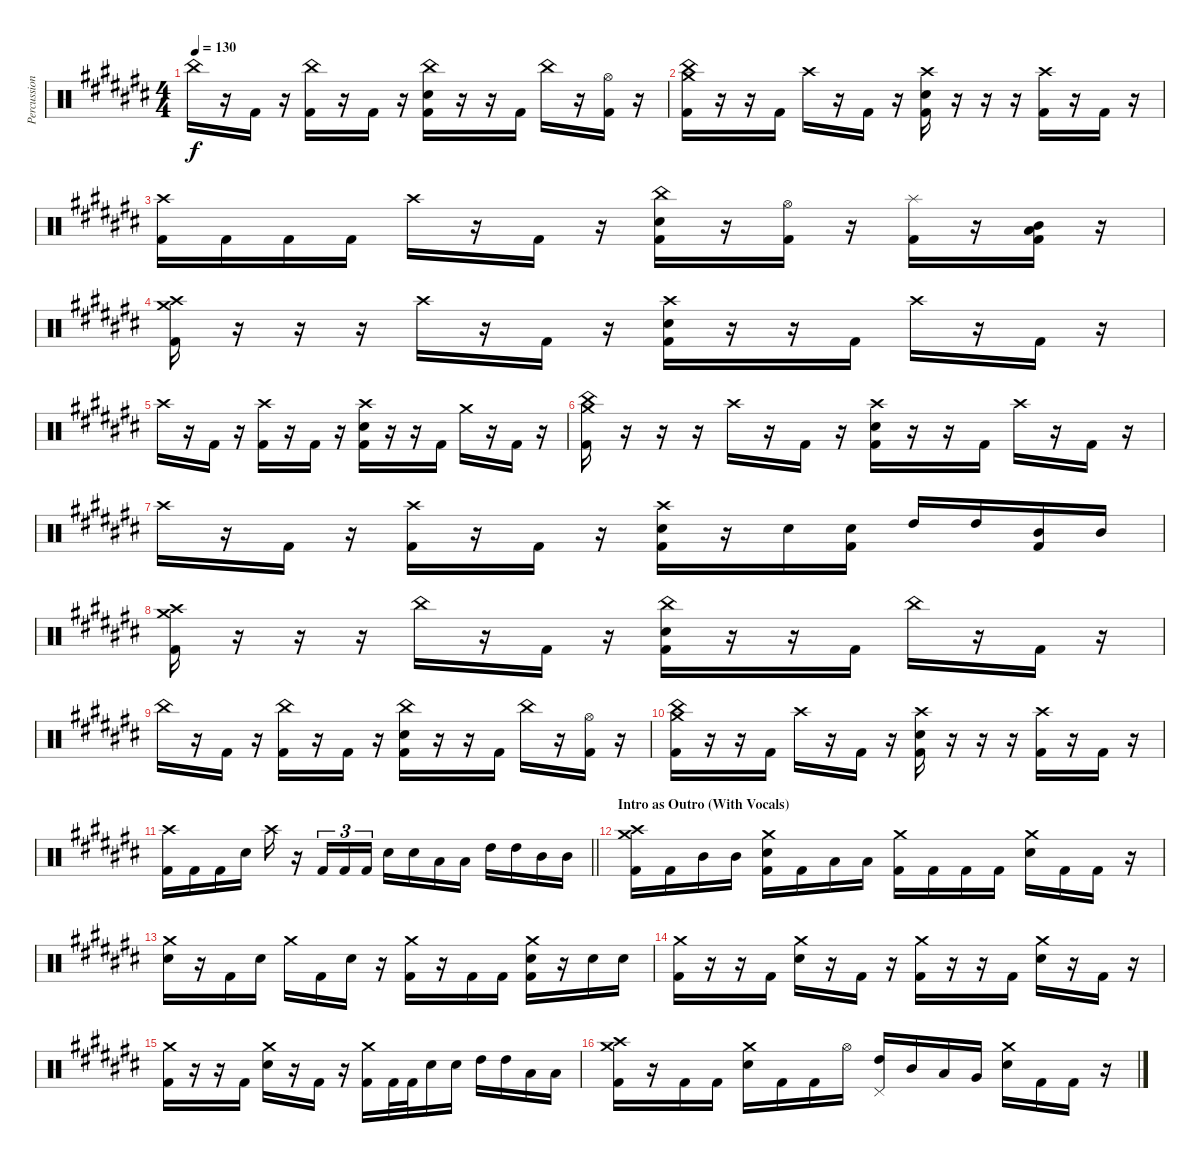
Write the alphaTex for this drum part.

\track ("Percussion" "Percussion") {instrument percussion}
\staff {score}
\articulation defaults
\ts (4 4)
\tempo 130
\clef neutral
\ks a#minor "China (hit)".16{dy f}
r.16 "Kick (hit) 2".16 r.16 ("China (hit)" "Kick (hit) 2").16 r.16 "Kick (hit) 2".16 r.16 ("China (hit)" "Electric Snare (hit)" "Kick (hit) 2").16 r.16 r.16 "Kick (hit) 2".16 "China (hit)".16 r.16 ("Hi-Hat (open)" "Kick (hit) 2").16 r.16 |
("China (hit)" "Crash medium (hit)" "Kick (hit) 2").16 r.16 r.16 "Kick (hit) 2".16 "Crash high (hit)".16 r.16 "Kick (hit) 2".16 r.16 ("Crash high (hit)" "Electric Snare (hit)" "Kick (hit) 2").16 r.16 r.16 r.16 ("Crash high (hit)" "Kick (hit) 2").16 r.16 "Kick (hit) 2".16 r.16 |
("Crash high (hit)" "Kick (hit) 2").16 "Kick (hit) 2".16 "Kick (hit) 2".16 "Kick (hit) 2".16 "Crash high (hit)".16 r.16 "Kick (hit) 2".16 r.16 ("China (hit)" "Electric Snare (hit)" "Kick (hit) 2").16 r.16 ("Hi-Hat (open)" "Kick (hit) 2").16 r.16 ("Splash (hit)" "Kick (hit) 2").16 r.16 ("Mid Tom (hit)" "Low Tom (hit)" "Kick (hit) 2").16 r.16 |
("Crash high (hit)" "Crash medium (hit)" "Kick (hit) 2").16 r.16 r.16 r.16 "Crash high (hit)".16 r.16 "Kick (hit) 2".16 r.16 ("Crash high (hit)" "Electric Snare (hit)" "Kick (hit) 2").16 r.16 r.16 "Kick (hit) 2".16 "Crash high (hit)".16 r.16 "Kick (hit) 2".16 r.16 |
"Crash high (hit)".16 r.16 "Kick (hit) 2".16 r.16 ("Crash high (hit)" "Kick (hit) 2").16 r.16 "Kick (hit) 2".16 r.16 ("Crash high (hit)" "Electric Snare (hit)" "Kick (hit) 2").16 r.16 r.16 "Kick (hit) 2".16 "Crash medium (hit)".16 r.16 "Kick (hit) 2".16 r.16 |
("China (hit)" "Crash medium (hit)" "Kick (hit) 2").16 r.16 r.16 r.16 "Crash high (hit)".16 r.16 "Kick (hit) 2".16 r.16 ("Crash high (hit)" "Electric Snare (hit)" "Kick (hit) 2").16 r.16 r.16 "Kick (hit) 2".16 "Crash high (hit)".16 r.16 "Kick (hit) 2".16 r.16 |
"Crash high (hit)".16 r.16 "Kick (hit) 2".16 r.16 ("Crash high (hit)" "Kick (hit) 2").16 r.16 "Kick (hit) 2".16 r.16 ("Crash high (hit)" "Electric Snare (hit)" "Kick (hit) 2").16 r.16 "Electric Snare (hit)".16 ("Electric Snare (hit)" "Kick (hit) 2").16 "High Tom (hit)".16 "High Tom (hit)".16 ("Mid Tom (hit)" "Kick (hit) 2").16 "Mid Tom (hit)".16 |
("Crash high (hit)" "Crash medium (hit)" "Kick (hit) 2").16 r.16 r.16 r.16 "China (hit)".16 r.16 "Kick (hit) 2".16 r.16 ("China (hit)" "Electric Snare (hit)" "Kick (hit) 2").16 r.16 r.16 "Kick (hit) 2".16 "China (hit)".16 r.16 "Kick (hit) 2".16 r.16 |
"China (hit)".16 r.16 "Kick (hit) 2".16 r.16 ("China (hit)" "Kick (hit) 2").16 r.16 "Kick (hit) 2".16 r.16 ("China (hit)" "Electric Snare (hit)" "Kick (hit) 2").16 r.16 r.16 "Kick (hit) 2".16 "China (hit)".16 r.16 ("Hi-Hat (open)" "Kick (hit) 2").16 r.16 |
("China (hit)" "Crash medium (hit)" "Kick (hit) 2").16 r.16 r.16 "Kick (hit) 2".16 "Crash high (hit)".16 r.16 "Kick (hit) 2".16 r.16 ("Crash high (hit)" "Electric Snare (hit)" "Kick (hit) 2").16 r.16 r.16 r.16 ("Crash high (hit)" "Kick (hit) 2").16 r.16 "Kick (hit) 2".16 r.16 |
\barLineRight lightlight
("Crash high (hit)" "Kick (hit) 2").16 "Kick (hit) 2".16 "Kick (hit) 2".16 "Electric Snare (hit)".16 "Crash high (hit)".16 r.16 "Kick (hit) 2".16{tu (3 2)} "Kick (hit) 2".16{tu (3 2)} "Kick (hit) 2".16{tu (3 2)} "Electric Snare (hit)".16 "Electric Snare (hit)".16 "Low Tom (hit)".16 "Low Tom (hit)".16 "High Tom (hit)".16 "High Tom (hit)".16 "Mid Tom (hit)".16 "Mid Tom (hit)".16 |
\section ("" "Intro as Outro (With Vocals)")
("Crash medium (hit)" "Crash high (hit)" "Kick (hit) 2").16 "Kick (hit) 2".16 "Mid Tom (hit)".16 "Mid Tom (hit)".16 ("Crash medium (hit)" "Electric Snare (hit)" "Kick (hit) 2").16 "Kick (hit) 2".16 "Low Tom (hit)".16 "Low Tom (hit)".16 ("Crash medium (hit)" "Kick (hit) 2").16 "Kick (hit) 2".16 "Kick (hit) 2".16 "Kick (hit) 2".16 ("Crash medium (hit)" "Electric Snare (hit)").16 "Kick (hit) 2".16 "Kick (hit) 2".16 r.16 |
("Crash medium (hit)" "Electric Snare (hit)").16 r.16 "Kick (hit) 2".16 "Electric Snare (hit)".16 "Crash medium (hit)".16 "Kick (hit) 2".16 "Electric Snare (hit)".16 r.16 ("Crash medium (hit)" "Kick (hit) 2").16 r.16 "Kick (hit) 2".16 "Kick (hit) 2".16 ("Crash medium (hit)" "Electric Snare (hit)" "Kick (hit) 2").16 r.16 "Electric Snare (hit)".16 "Electric Snare (hit)".16 |
("Crash medium (hit)" "Kick (hit) 2").16 r.16 r.16 "Kick (hit) 2".16 ("Crash medium (hit)" "Electric Snare (hit)").16 r.16 "Kick (hit) 2".16 r.16 ("Crash medium (hit)" "Kick (hit) 2").16 r.16 r.16 "Kick (hit) 2".16 ("Crash medium (hit)" "Electric Snare (hit)").16 r.16 "Kick (hit) 2".16 r.16 |
("Crash medium (hit)" "Kick (hit) 2").16 r.16 r.16 "Kick (hit) 2".16 ("Crash medium (hit)" "Electric Snare (hit)").16 r.16 "Kick (hit) 2".16 r.16 ("Crash medium (hit)" "Kick (hit) 2").16 "Kick (hit) 2".32 "Kick (hit) 2".32 "Electric Snare (hit)".16 "Electric Snare (hit)".16 "High Tom (hit)".16 "High Tom (hit)".16 "Low Tom (hit)".16 "Low Tom (hit)".16 |
("Crash medium (hit)" "Crash high (hit)" "Kick (hit) 2").16 r.16 "Kick (hit) 2".16 "Kick (hit) 2".16 ("Crash medium (hit)" "Electric Snare (hit)").16 "Kick (hit) 2".16 "Kick (hit) 2".16 "Hi-Hat (open)".16 ("Pedal Hi-Hat (hit)" "High Tom (hit)").16 "Mid Tom (hit)".16 "Low Tom (hit)".16 "Very Low Tom (hit)".16 ("Crash medium (hit)" "Electric Snare (hit)").16 "Kick (hit) 2".16 "Kick (hit) 2".16 r.16
